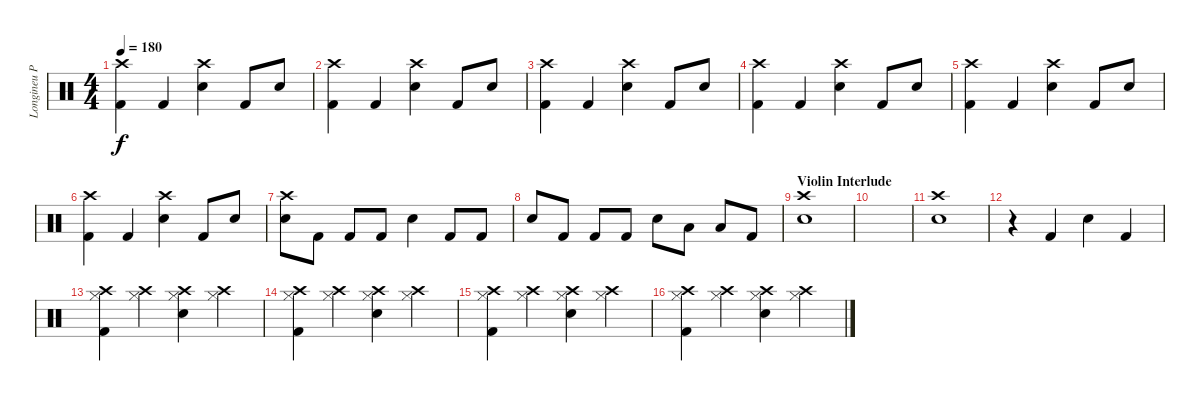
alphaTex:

\track ("Longineu Parsons III (Drums)" "Longineu P") {instrument percussion}
\staff {score}
\articulation defaults
\ts (4 4)
\tempo 180
\clef neutral
\ks c
("Kick (hit) 2" "Crash high (hit)").4{dy f} "Kick (hit) 2".4 ("Snare (hit) 2" "Crash high (hit)").4 "Kick (hit) 2".8 "Snare (hit) 2".8 |
("Kick (hit) 2" "Crash high (hit)").4 "Kick (hit) 2".4 ("Snare (hit) 2" "Crash high (hit)").4 "Kick (hit) 2".8 "Snare (hit) 2".8 |
("Kick (hit) 2" "Crash high (hit)").4 "Kick (hit) 2".4 ("Snare (hit) 2" "Crash high (hit)").4 "Kick (hit) 2".8 "Snare (hit) 2".8 |
("Kick (hit) 2" "Crash high (hit)").4 "Kick (hit) 2".4 ("Snare (hit) 2" "Crash high (hit)").4 "Kick (hit) 2".8 "Snare (hit) 2".8 |
("Kick (hit) 2" "Crash high (hit)").4 "Kick (hit) 2".4 ("Snare (hit) 2" "Crash high (hit)").4 "Kick (hit) 2".8 "Snare (hit) 2".8 |
("Kick (hit) 2" "Crash high (hit)").4 "Kick (hit) 2".4 ("Snare (hit) 2" "Crash high (hit)").4 "Kick (hit) 2".8 "Snare (hit) 2".8 |
("Crash high (hit)" "Snare (hit) 2").8 "Kick (hit) 2".8 "Kick (hit) 2".8 "Kick (hit) 2".8 "Snare (hit) 2".4 "Kick (hit) 2".8 "Kick (hit) 2".8 |
"Snare (hit) 2".8 "Kick (hit) 2".8 "Kick (hit) 2".8 "Kick (hit) 2".8 "Snare (hit) 2".8 "Low Tom (hit)".8 "Low Floor Tom (hit)".8 "Kick (hit) 2".8 |
\section ("" "Violin Interlude")
("Snare (hit) 2" "Crash high (hit)").1 |
|
("Snare (hit) 2" "Crash high (hit)").1 |
r.4 "Kick (hit) 2".4 "Snare (hit) 2".4 "Kick (hit) 2".4 |
("Crash high (hit)" "Hi-Hat (closed)" "Kick (hit) 2").4 ("Crash high (hit)" "Hi-Hat (closed)").4 ("Crash high (hit)" "Hi-Hat (closed)" "Snare (hit) 2").4 ("Crash high (hit)" "Hi-Hat (closed)").4 |
("Crash high (hit)" "Hi-Hat (closed)" "Kick (hit) 2").4 ("Crash high (hit)" "Hi-Hat (closed)").4 ("Crash high (hit)" "Hi-Hat (closed)" "Snare (hit) 2").4 ("Crash high (hit)" "Hi-Hat (closed)").4 |
("Crash high (hit)" "Hi-Hat (closed)" "Kick (hit) 2").4 ("Crash high (hit)" "Hi-Hat (closed)").4 ("Crash high (hit)" "Hi-Hat (closed)" "Snare (hit) 2").4 ("Crash high (hit)" "Hi-Hat (closed)").4 |
("Crash high (hit)" "Hi-Hat (closed)" "Kick (hit) 2").4 ("Crash high (hit)" "Hi-Hat (closed)").4 ("Crash high (hit)" "Hi-Hat (closed)" "Snare (hit) 2").4 ("Crash high (hit)" "Hi-Hat (closed)").4
